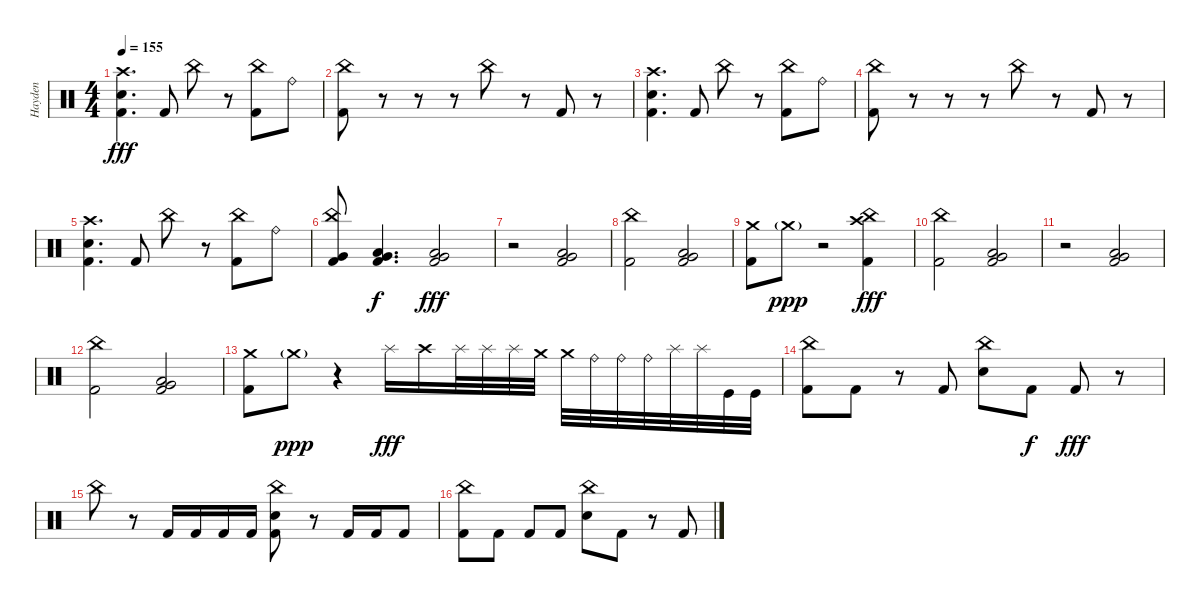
\track ("Hayden" "Hayden") {instrument percussion}
\staff {score}
\articulation defaults
\ts (4 4)
\tempo 155
\clef neutral
\ks c
("Crash high (hit)" "Snare (hit) 2" "Kick (hit) 2").4{d dy fff} "Kick (hit) 2".8 "China (hit)".8 r.8 ("China (hit)" "Kick (hit) 2").8 "Ride (bell)".8 |
("China (hit)" "Kick (hit) 2").8 r.8 r.8 r.8 "China (hit)".8 r.8 "Kick (hit) 2".8 r.8 |
("Crash high (hit)" "Snare (hit) 2" "Kick (hit) 2").4{d} "Kick (hit) 2".8 "China (hit)".8 r.8 ("China (hit)" "Kick (hit) 2").8 "Ride (bell)".8 |
("China (hit)" "Kick (hit) 2").8 r.8 r.8 r.8 "China (hit)".8 r.8 "Kick (hit) 2".8 r.8 |
("Crash high (hit)" "Snare (hit) 2" "Kick (hit) 2").4{d} "Kick (hit) 2".8 "China (hit)".8 r.8 ("China (hit)" "Kick (hit) 2").8 "Ride (bell)".8 |
("China (hit)" "Very Low Tom (hit)" "Kick (hit) 2").8 ("Low Tom (hit)" "Very Low Tom (hit)" "Kick (hit) 2").4{d dy f} ("Low Tom (hit)" "Very Low Tom (hit)" "Kick (hit) 2").2{dy fff} |
r.2 ("Low Tom (hit)" "Very Low Tom (hit)" "Kick (hit) 2").2 |
("China (hit)" "Kick (hit) 2").2 ("Low Tom (hit)" "Very Low Tom (hit)" "Kick (hit) 2").2 |
("Crash medium (hit)" "Kick (hit) 2").8 "Crash medium (hit)"{g}.8{dy ppp} r.2 ("Crash high (hit)" "China (hit)" "Kick (hit) 2").4{dy fff} |
("China (hit)" "Kick (hit) 2").2 ("Low Tom (hit)" "Very Low Tom (hit)" "Kick (hit) 2").2 |
r.2 ("Low Tom (hit)" "Very Low Tom (hit)" "Kick (hit) 2").2 |
("China (hit)" "Kick (hit) 2").2 ("Low Tom (hit)" "Very Low Tom (hit)" "Kick (hit) 2").2 |
("Crash medium (hit)" "Kick (hit) 2").8 "Crash medium (hit)"{g}.8{dy ppp} r.4 "Splash (hit)".16{dy fff} "Crash high (hit)".16 "Splash (hit)".32 "Splash (hit)".32 "Splash (hit)".32 "Crash medium (hit)".32 "Crash medium (hit)".32 "Ride (bell)".32 "Ride (bell)".32 "Ride (bell)".32 "Splash (hit)".32 "Splash (hit)".32 "Kick (hit)".32 "Kick (hit)".32 |
("China (hit)" "Kick (hit) 2").8 "Kick (hit) 2".8 r.8 "Kick (hit) 2".8 ("China (hit)" "Snare (hit) 2").8 "Kick (hit) 2".8{dy f} "Kick (hit) 2".8{dy fff} r.8 |
"China (hit)".8 r.8 "Kick (hit) 2".16 "Kick (hit) 2".16 "Kick (hit) 2".16 "Kick (hit) 2".16 ("China (hit)" "Snare (hit) 2" "Kick (hit) 2").8 r.8 "Kick (hit) 2".16 "Kick (hit) 2".16 "Kick (hit) 2".8 |
("China (hit)" "Kick (hit) 2").8 "Kick (hit) 2".8 "Kick (hit) 2".8 "Kick (hit) 2".8 ("China (hit)" "Snare (hit) 2").8 "Kick (hit) 2".8 r.8 "Kick (hit) 2".8
